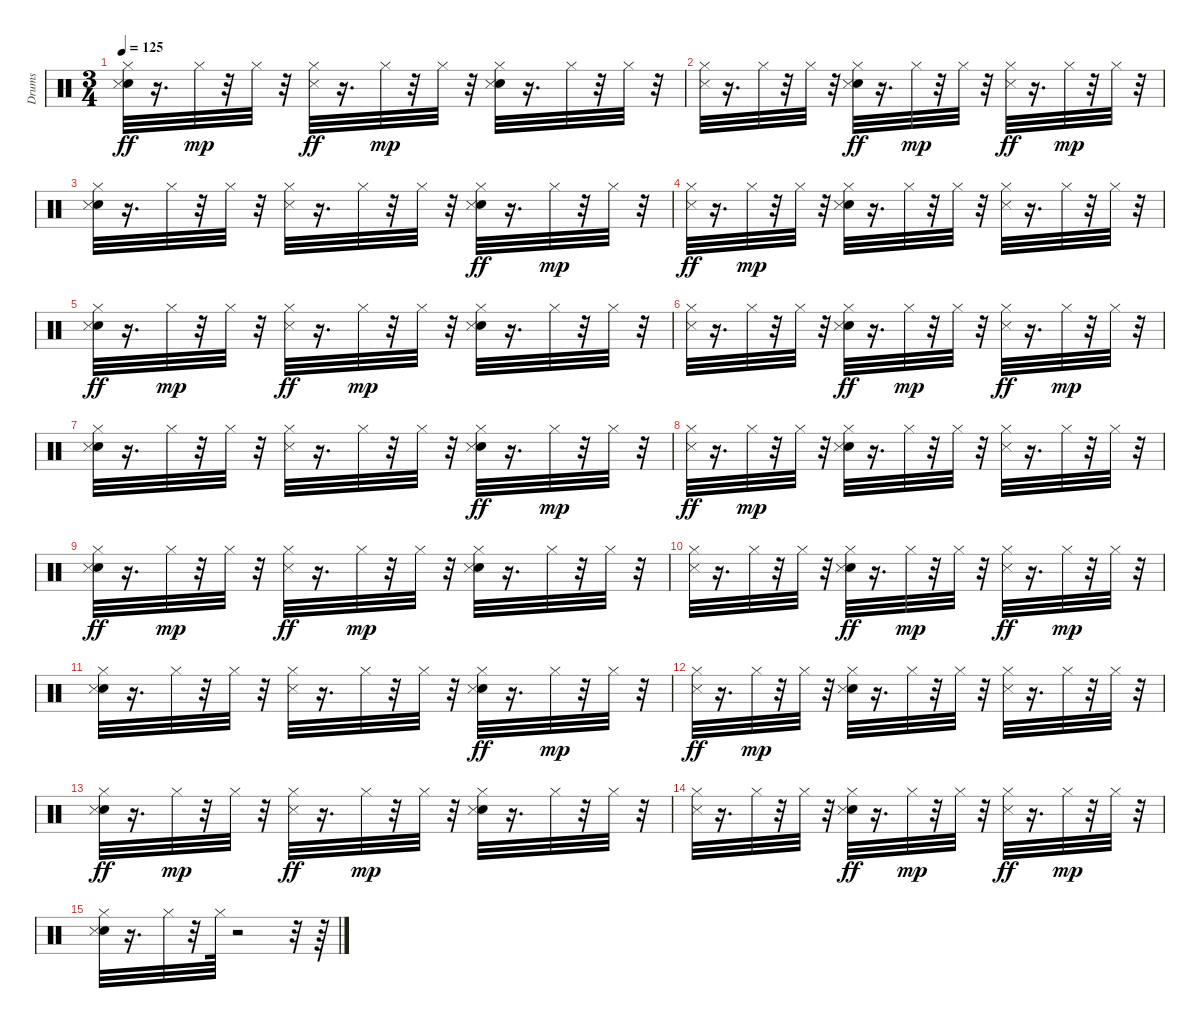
\track ("Drums   " "Drums   ") {instrument percussion}
\staff {score}
\articulation defaults
\ts (3 4)
\tempo 125
\clef neutral
\ks c
("Hi-Hat (closed)" "Snare (hit) 2" "Metronome (hit)").32{dy ff} r.16{d} "Hi-Hat (closed)".32{dy mp} r.32 "Hi-Hat (closed)".32 r.32 ("Hi-Hat (closed)" "Metronome (hit)").32{dy ff} r.16{d} "Hi-Hat (closed)".32{dy mp} r.32 "Hi-Hat (closed)".32 r.32 ("Snare (hit) 2" "Metronome (hit)" "Hi-Hat (closed)").32 r.16{d} "Hi-Hat (closed)".32 r.32 "Hi-Hat (closed)".32 r.32 |
("Metronome (hit)" "Hi-Hat (closed)").32 r.16{d} "Hi-Hat (closed)".32 r.32 "Hi-Hat (closed)".32 r.32 ("Hi-Hat (closed)" "Snare (hit) 2" "Metronome (hit)").32{dy ff} r.16{d} "Hi-Hat (closed)".32{dy mp} r.32 "Hi-Hat (closed)".32 r.32 ("Hi-Hat (closed)" "Metronome (hit)").32{dy ff} r.16{d} "Hi-Hat (closed)".32{dy mp} r.32 "Hi-Hat (closed)".32 r.32 |
("Snare (hit) 2" "Metronome (hit)" "Hi-Hat (closed)").32 r.16{d} "Hi-Hat (closed)".32 r.32 "Hi-Hat (closed)".32 r.32 ("Metronome (hit)" "Hi-Hat (closed)").32 r.16{d} "Hi-Hat (closed)".32 r.32 "Hi-Hat (closed)".32 r.32 ("Hi-Hat (closed)" "Snare (hit) 2" "Metronome (hit)").32{dy ff} r.16{d} "Hi-Hat (closed)".32{dy mp} r.32 "Hi-Hat (closed)".32 r.32 |
("Hi-Hat (closed)" "Metronome (hit)").32{dy ff} r.16{d} "Hi-Hat (closed)".32{dy mp} r.32 "Hi-Hat (closed)".32 r.32 ("Snare (hit) 2" "Metronome (hit)" "Hi-Hat (closed)").32 r.16{d} "Hi-Hat (closed)".32 r.32 "Hi-Hat (closed)".32 r.32 ("Metronome (hit)" "Hi-Hat (closed)").32 r.16{d} "Hi-Hat (closed)".32 r.32 "Hi-Hat (closed)".32 r.32 |
("Hi-Hat (closed)" "Snare (hit) 2" "Metronome (hit)").32{dy ff} r.16{d} "Hi-Hat (closed)".32{dy mp} r.32 "Hi-Hat (closed)".32 r.32 ("Hi-Hat (closed)" "Metronome (hit)").32{dy ff} r.16{d} "Hi-Hat (closed)".32{dy mp} r.32 "Hi-Hat (closed)".32 r.32 ("Snare (hit) 2" "Metronome (hit)" "Hi-Hat (closed)").32 r.16{d} "Hi-Hat (closed)".32 r.32 "Hi-Hat (closed)".32{volume 12} r.32 |
("Metronome (hit)" "Hi-Hat (closed)").32{volume 12} r.16{d} "Hi-Hat (closed)".32{volume 12} r.32 "Hi-Hat (closed)".32 r.32 ("Hi-Hat (closed)" "Snare (hit) 2" "Metronome (hit)").32{dy ff volume 12} r.16{d} "Hi-Hat (closed)".32{dy mp volume 12} r.32 "Hi-Hat (closed)".32{volume 12} r.32 ("Hi-Hat (closed)" "Metronome (hit)").32{dy ff volume 12} r.16{d} "Hi-Hat (closed)".32{dy mp volume 11} r.32 "Hi-Hat (closed)".32 r.32 |
("Snare (hit) 2" "Metronome (hit)" "Hi-Hat (closed)").32{volume 11} r.16{d} "Hi-Hat (closed)".32{volume 11} r.32 "Hi-Hat (closed)".32{volume 11} r.32 ("Metronome (hit)" "Hi-Hat (closed)").32 r.16{d} "Hi-Hat (closed)".32{volume 11} r.32 "Hi-Hat (closed)".32 r.32 ("Hi-Hat (closed)" "Snare (hit) 2" "Metronome (hit)").32{dy ff volume 11} r.16{d} "Hi-Hat (closed)".32{dy mp volume 10} r.32 "Hi-Hat (closed)".32{volume 10} r.32 |
("Hi-Hat (closed)" "Metronome (hit)").32{dy ff volume 10} r.16{d} "Hi-Hat (closed)".32{dy mp volume 10} r.32 "Hi-Hat (closed)".32 r.32 ("Snare (hit) 2" "Metronome (hit)" "Hi-Hat (closed)").32 r.16{d} "Hi-Hat (closed)".32{volume 10} r.32 "Hi-Hat (closed)".32{volume 9} r.32 ("Metronome (hit)" "Hi-Hat (closed)").32 r.16{d} "Hi-Hat (closed)".32 r.32 "Hi-Hat (closed)".32 r.32 |
("Hi-Hat (closed)" "Snare (hit) 2" "Metronome (hit)").32{dy ff volume 9} r.16{d} "Hi-Hat (closed)".32{dy mp volume 9} r.32 "Hi-Hat (closed)".32 r.32 ("Hi-Hat (closed)" "Metronome (hit)").32{dy ff volume 9} r.16{d} "Hi-Hat (closed)".32{dy mp} r.32 "Hi-Hat (closed)".32{volume 9} r.32 ("Snare (hit) 2" "Metronome (hit)" "Hi-Hat (closed)").32{volume 9} r.16{d} "Hi-Hat (closed)".32{volume 8} r.32 "Hi-Hat (closed)".32 r.32 |
("Metronome (hit)" "Hi-Hat (closed)").32{volume 8} r.16{d} "Hi-Hat (closed)".32{volume 8} r.32 "Hi-Hat (closed)".32{volume 8} r.32 ("Hi-Hat (closed)" "Snare (hit) 2" "Metronome (hit)").32{dy ff volume 8} r.16{d} "Hi-Hat (closed)".32{dy mp volume 8} r.32 "Hi-Hat (closed)".32{volume 8} r.32 ("Hi-Hat (closed)" "Metronome (hit)").32{dy ff} r.16{d} "Hi-Hat (closed)".32{dy mp volume 8} r.32 "Hi-Hat (closed)".32 r.32 |
("Snare (hit) 2" "Metronome (hit)" "Hi-Hat (closed)").32{volume 7} r.16{d} "Hi-Hat (closed)".32{volume 7} r.32 "Hi-Hat (closed)".32{volume 7} r.32 ("Metronome (hit)" "Hi-Hat (closed)").32 r.16{d} "Hi-Hat (closed)".32{volume 7} r.32 "Hi-Hat (closed)".32{volume 7} r.32 ("Hi-Hat (closed)" "Snare (hit) 2" "Metronome (hit)").32{dy ff} r.16{d} "Hi-Hat (closed)".32{dy mp volume 7} r.32 "Hi-Hat (closed)".32{volume 6} r.32 |
("Hi-Hat (closed)" "Metronome (hit)").32{dy ff volume 6} r.16{d} "Hi-Hat (closed)".32{dy mp volume 6} r.32 "Hi-Hat (closed)".32{volume 6} r.32 ("Snare (hit) 2" "Metronome (hit)" "Hi-Hat (closed)").32{volume 6} r.16{d} "Hi-Hat (closed)".32{volume 5} r.32 "Hi-Hat (closed)".32{volume 5} r.32 ("Metronome (hit)" "Hi-Hat (closed)").32{volume 4} r.16{d} "Hi-Hat (closed)".32{volume 4} r.32 "Hi-Hat (closed)".32{volume 4} r.32 |
("Hi-Hat (closed)" "Snare (hit) 2" "Metronome (hit)").32{dy ff volume 4} r.16{d} "Hi-Hat (closed)".32{dy mp volume 3} r.32 "Hi-Hat (closed)".32{volume 3} r.32 ("Hi-Hat (closed)" "Metronome (hit)").32{dy ff} r.16{d} "Hi-Hat (closed)".32{dy mp volume 3} r.32 "Hi-Hat (closed)".32{volume 3} r.32 ("Snare (hit) 2" "Metronome (hit)" "Hi-Hat (closed)").32{volume 3} r.16{d} "Hi-Hat (closed)".32{volume 2} r.32 "Hi-Hat (closed)".32{volume 2} r.32 |
("Metronome (hit)" "Hi-Hat (closed)").32{volume 2} r.16{d} "Hi-Hat (closed)".32{volume 2} r.32 "Hi-Hat (closed)".32{volume 1} r.32 ("Hi-Hat (closed)" "Snare (hit) 2" "Metronome (hit)").32{dy ff volume 1} r.16{d} "Hi-Hat (closed)".32{dy mp volume 1} r.32 "Hi-Hat (closed)".32{volume 1} r.32 ("Hi-Hat (closed)" "Metronome (hit)").32{dy ff volume 1} r.16{d} "Hi-Hat (closed)".32{dy mp volume 0} r.32 "Hi-Hat (closed)".32{volume 0} r.32 |
("Snare (hit) 2" "Metronome (hit)" "Hi-Hat (closed)").32{volume 0} r.16{d} "Hi-Hat (closed)".32{volume 0} r.32 "Hi-Hat (closed)".64 r.2 r.32 r.64
